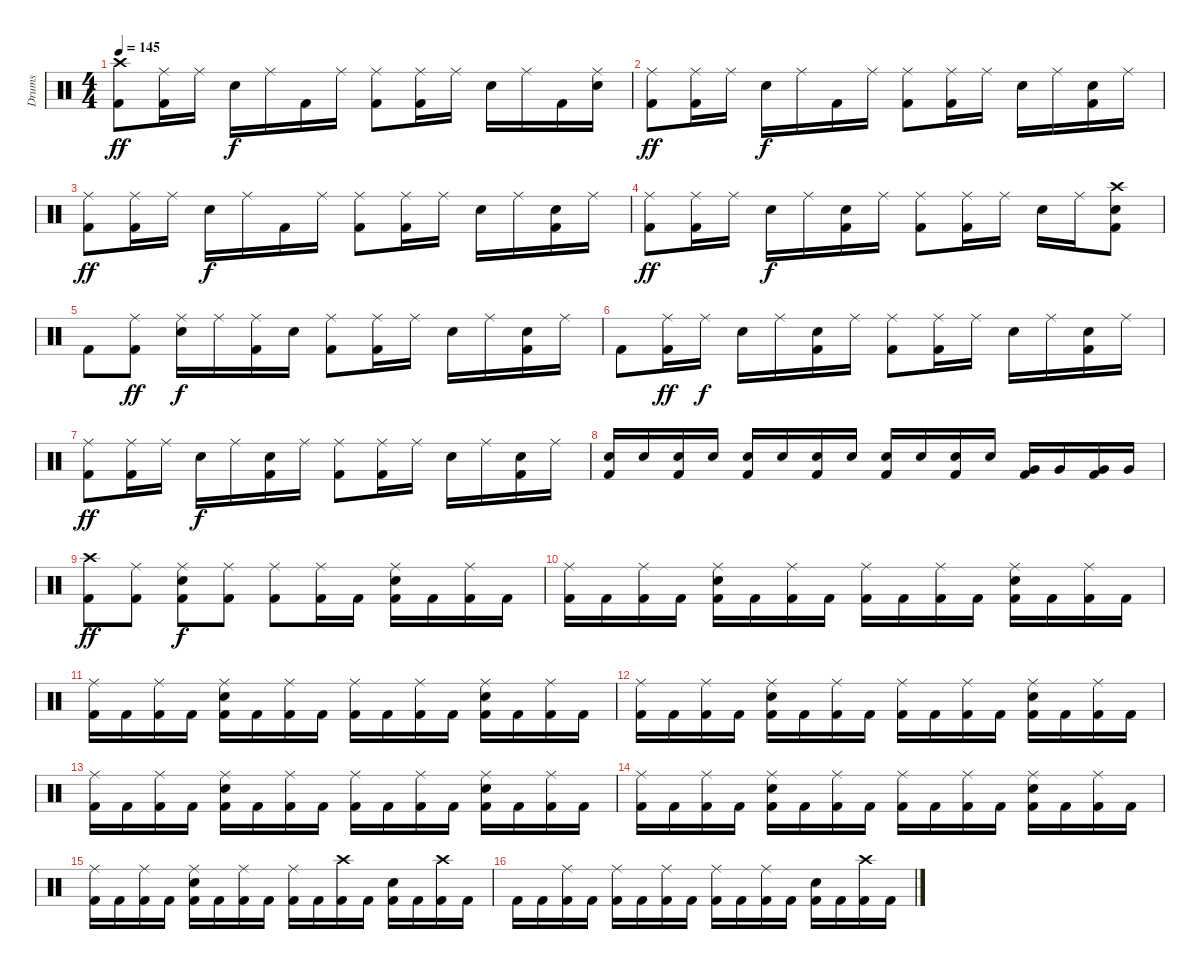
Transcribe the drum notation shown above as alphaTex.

\track ("Drums" "Drums") {instrument percussion}
\staff {score}
\articulation defaults
\ts (4 4)
\tempo 145
\clef neutral
\ks c
("Crash high (hit)" "Kick (hit) 2").8{dy ff} ("Ride (middle)" "Kick (hit) 2").16 "Ride (middle)".16 "Snare (hit) 2".16{dy f} "Ride (middle)".16 "Kick (hit) 2".16 "Ride (middle)".16 ("Ride (middle)" "Kick (hit) 2").8 ("Ride (middle)" "Kick (hit) 2").16 "Ride (middle)".16 "Snare (hit) 2".16 "Ride (middle)".16 "Kick (hit) 2".16 ("Ride (middle)" "Snare (hit) 2").16 |
("Ride (middle)" "Kick (hit) 2").8{dy ff} ("Ride (middle)" "Kick (hit) 2").16 "Ride (middle)".16 "Snare (hit) 2".16{dy f} "Ride (middle)".16 "Kick (hit) 2".16 "Ride (middle)".16 ("Ride (middle)" "Kick (hit) 2").8 ("Ride (middle)" "Kick (hit) 2").16 "Ride (middle)".16 "Snare (hit) 2".16 "Ride (middle)".16 ("Snare (hit) 2" "Kick (hit) 2").16 "Ride (middle)".16 |
("Ride (middle)" "Kick (hit) 2").8{dy ff} ("Ride (middle)" "Kick (hit) 2").16 "Ride (middle)".16 "Snare (hit) 2".16{dy f} "Ride (middle)".16 "Kick (hit) 2".16 "Ride (middle)".16 ("Ride (middle)" "Kick (hit) 2").8 ("Ride (middle)" "Kick (hit) 2").16 "Ride (middle)".16 "Snare (hit) 2".16 "Ride (middle)".16 ("Snare (hit) 2" "Kick (hit) 2").16 "Ride (middle)".16 |
("Ride (middle)" "Kick (hit) 2").8{dy ff} ("Ride (middle)" "Kick (hit) 2").16 "Ride (middle)".16 "Snare (hit) 2".16{dy f} "Ride (middle)".16 ("Snare (hit) 2" "Kick (hit) 2").16 "Ride (middle)".16 ("Ride (middle)" "Kick (hit) 2").8 ("Ride (middle)" "Kick (hit) 2").16 "Ride (middle)".16 "Snare (hit) 2".16 "Ride (middle)".16 ("Crash high (hit)" "Snare (hit) 2" "Kick (hit) 2").8 |
"Kick (hit) 2".8 ("Ride (middle)" "Kick (hit) 2").8{dy ff} ("Ride (middle)" "Snare (hit) 2").16{dy f} "Ride (middle)".16 ("Ride (middle)" "Kick (hit) 2").16 "Snare (hit) 2".16 ("Ride (middle)" "Kick (hit) 2").8 ("Ride (middle)" "Kick (hit) 2").16 "Ride (middle)".16 "Snare (hit) 2".16 "Ride (middle)".16 ("Snare (hit) 2" "Kick (hit) 2").16 "Ride (middle)".16 |
"Kick (hit) 2".8 ("Ride (middle)" "Kick (hit) 2").16{dy ff} "Ride (middle)".16{dy f} "Snare (hit) 2".16 "Ride (middle)".16 ("Snare (hit) 2" "Kick (hit) 2").16 "Ride (middle)".16 ("Ride (middle)" "Kick (hit) 2").8 ("Ride (middle)" "Kick (hit) 2").16 "Ride (middle)".16 "Snare (hit) 2".16 "Ride (middle)".16 ("Snare (hit) 2" "Kick (hit) 2").16 "Ride (middle)".16 |
("Ride (middle)" "Kick (hit) 2").8{dy ff} ("Ride (middle)" "Kick (hit) 2").16 "Ride (middle)".16 "Snare (hit) 2".16{dy f} "Ride (middle)".16 ("Snare (hit) 2" "Kick (hit) 2").16 "Ride (middle)".16 ("Ride (middle)" "Kick (hit) 2").8 ("Ride (middle)" "Kick (hit) 2").16 "Ride (middle)".16 "Snare (hit) 2".16 "Ride (middle)".16 ("Snare (hit) 2" "Kick (hit) 2").16 "Ride (middle)".16 |
("Snare (hit) 2" "Kick (hit) 2").16 "Snare (hit) 2".16 ("Snare (hit) 2" "Kick (hit) 2").16 "Snare (hit) 2".16 ("Snare (hit) 2" "Kick (hit) 2").16 "Snare (hit) 2".16 ("Snare (hit) 2" "Kick (hit) 2").16 "Snare (hit) 2".16 ("Snare (hit) 2" "Kick (hit) 2").16 "Snare (hit) 2".16 ("Snare (hit) 2" "Kick (hit) 2").16 "Snare (hit) 2".16 ("Very Low Tom (hit)" "Kick (hit) 2").16 "Very Low Tom (hit)".16 ("Very Low Tom (hit)" "Kick (hit) 2").16 "Very Low Tom (hit)".16 |
("Crash high (hit)" "Kick (hit) 2").8{dy ff volume 11} ("Ride (middle)" "Kick (hit) 2").8 ("Ride (middle)" "Snare (hit) 2" "Kick (hit) 2").8{dy f} ("Ride (middle)" "Kick (hit) 2").8 ("Ride (middle)" "Kick (hit) 2").8 ("Ride (middle)" "Kick (hit) 2").16 "Kick (hit) 2".16 ("Ride (middle)" "Snare (hit) 2" "Kick (hit) 2").16 "Kick (hit) 2".16 ("Ride (middle)" "Kick (hit) 2").16 "Kick (hit) 2".16 |
("Ride (middle)" "Kick (hit) 2").16 "Kick (hit) 2".16 ("Ride (middle)" "Kick (hit) 2").16 "Kick (hit) 2".16 ("Ride (middle)" "Snare (hit) 2" "Kick (hit) 2").16 "Kick (hit) 2".16 ("Ride (middle)" "Kick (hit) 2").16 "Kick (hit) 2".16 ("Ride (middle)" "Kick (hit) 2").16 "Kick (hit) 2".16 ("Ride (middle)" "Kick (hit) 2").16 "Kick (hit) 2".16 ("Ride (middle)" "Snare (hit) 2" "Kick (hit) 2").16 "Kick (hit) 2".16 ("Ride (middle)" "Kick (hit) 2").16 "Kick (hit) 2".16 |
("Ride (middle)" "Kick (hit) 2").16{volume 9} "Kick (hit) 2".16 ("Ride (middle)" "Kick (hit) 2").16 "Kick (hit) 2".16 ("Ride (middle)" "Snare (hit) 2" "Kick (hit) 2").16 "Kick (hit) 2".16 ("Ride (middle)" "Kick (hit) 2").16 "Kick (hit) 2".16 ("Ride (middle)" "Kick (hit) 2").16 "Kick (hit) 2".16 ("Ride (middle)" "Kick (hit) 2").16 "Kick (hit) 2".16 ("Ride (middle)" "Snare (hit) 2" "Kick (hit) 2").16 "Kick (hit) 2".16 ("Ride (middle)" "Kick (hit) 2").16 "Kick (hit) 2".16 |
("Ride (middle)" "Kick (hit) 2").16 "Kick (hit) 2".16 ("Ride (middle)" "Kick (hit) 2").16 "Kick (hit) 2".16 ("Ride (middle)" "Snare (hit) 2" "Kick (hit) 2").16 "Kick (hit) 2".16 ("Ride (middle)" "Kick (hit) 2").16 "Kick (hit) 2".16 ("Ride (middle)" "Kick (hit) 2").16 "Kick (hit) 2".16 ("Ride (middle)" "Kick (hit) 2").16 "Kick (hit) 2".16 ("Ride (middle)" "Snare (hit) 2" "Kick (hit) 2").16 "Kick (hit) 2".16 ("Ride (middle)" "Kick (hit) 2").16 "Kick (hit) 2".16 |
("Ride (middle)" "Kick (hit) 2").16{volume 6} "Kick (hit) 2".16 ("Ride (middle)" "Kick (hit) 2").16 "Kick (hit) 2".16 ("Ride (middle)" "Snare (hit) 2" "Kick (hit) 2").16 "Kick (hit) 2".16 ("Ride (middle)" "Kick (hit) 2").16 "Kick (hit) 2".16 ("Ride (middle)" "Kick (hit) 2").16 "Kick (hit) 2".16 ("Ride (middle)" "Kick (hit) 2").16 "Kick (hit) 2".16 ("Ride (middle)" "Snare (hit) 2" "Kick (hit) 2").16 "Kick (hit) 2".16 ("Ride (middle)" "Kick (hit) 2").16 "Kick (hit) 2".16 |
("Ride (middle)" "Kick (hit) 2").16 "Kick (hit) 2".16 ("Ride (middle)" "Kick (hit) 2").16 "Kick (hit) 2".16 ("Ride (middle)" "Snare (hit) 2" "Kick (hit) 2").16 "Kick (hit) 2".16 ("Ride (middle)" "Kick (hit) 2").16 "Kick (hit) 2".16 ("Ride (middle)" "Kick (hit) 2").16 "Kick (hit) 2".16 ("Ride (middle)" "Kick (hit) 2").16 "Kick (hit) 2".16 ("Ride (middle)" "Snare (hit) 2" "Kick (hit) 2").16 "Kick (hit) 2".16 ("Ride (middle)" "Kick (hit) 2").16 "Kick (hit) 2".16 |
("Ride (middle)" "Kick (hit) 2").16{volume 3} "Kick (hit) 2".16 ("Ride (middle)" "Kick (hit) 2").16 "Kick (hit) 2".16 ("Ride (middle)" "Snare (hit) 2" "Kick (hit) 2").16 "Kick (hit) 2".16 ("Ride (middle)" "Kick (hit) 2").16 "Kick (hit) 2".16 ("Ride (middle)" "Kick (hit) 2").16 "Kick (hit) 2".16 ("Crash high (hit)" "Kick (hit) 2").16 "Kick (hit) 2".16 ("Snare (hit) 2" "Kick (hit) 2").16 "Kick (hit) 2".16 ("Crash high (hit)" "Kick (hit) 2").16 "Kick (hit) 2".16 |
"Kick (hit) 2".16 "Kick (hit) 2".16 ("Ride (middle)" "Kick (hit) 2").16 "Kick (hit) 2".16 ("Ride (middle)" "Kick (hit) 2").16 "Kick (hit) 2".16 ("Ride (middle)" "Kick (hit) 2").16 "Kick (hit) 2".16 ("Ride (middle)" "Kick (hit) 2").16 "Kick (hit) 2".16 ("Ride (middle)" "Kick (hit) 2").16 "Kick (hit) 2".16 ("Snare (hit) 2" "Kick (hit) 2").16 "Kick (hit) 2".16 ("Crash high (hit)" "Kick (hit) 2").16 "Kick (hit) 2".16
